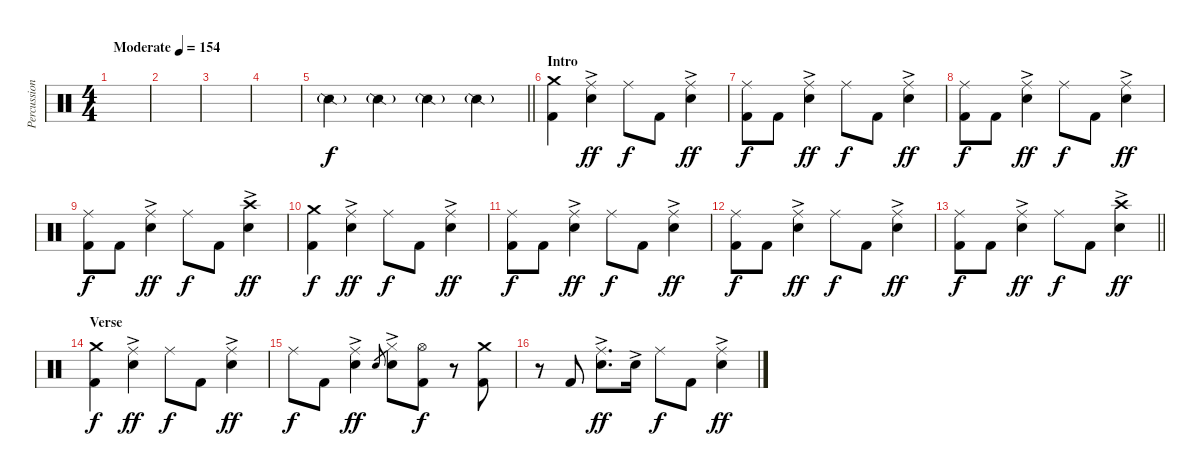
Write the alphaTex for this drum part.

\track ("Percussion" "Percussion") {instrument percussion}
\staff {score}
\articulation defaults
\ts (4 4)
\tempo (154 "Moderate")
\clef neutral
\ks c
|
|
|
|
\barLineRight lightlight "Snare (side stick) 2"{g}.4 "Snare (side stick) 2"{g}.4 "Snare (side stick) 2"{g}.4 "Snare (side stick) 2"{g}.4
|
\section ("" "Intro")
("Crash medium (hit)" "Kick (hit) 2").4{dy f} ("Ride (middle)" "Electric Snare (hit)"{ac}).4{dy ff} "Ride (middle)".8{dy f} "Kick (hit) 2".8 ("Ride (middle)" "Electric Snare (hit)"{ac}).4{dy ff} |
("Ride (middle)" "Kick (hit) 2").8{dy f} "Kick (hit) 2".8 ("Ride (middle)" "Electric Snare (hit)"{ac}).4{dy ff} "Ride (middle)".8{dy f} "Kick (hit) 2".8 ("Ride (middle)" "Electric Snare (hit)"{ac}).4{dy ff} |
("Ride (middle)" "Kick (hit) 2").8{dy f} "Kick (hit) 2".8 ("Ride (middle)" "Electric Snare (hit)"{ac}).4{dy ff} "Ride (middle)".8{dy f} "Kick (hit) 2".8 ("Ride (middle)" "Electric Snare (hit)"{ac}).4{dy ff} |
("Ride (middle)" "Kick (hit) 2").8{dy f} "Kick (hit) 2".8 ("Ride (middle)" "Electric Snare (hit)"{ac}).4{dy ff} "Ride (middle)".8{dy f} "Kick (hit) 2".8 ("Crash high (hit)" "Electric Snare (hit)"{ac}).4{dy ff} |
("Crash medium (hit)" "Kick (hit) 2").4{dy f} ("Ride (middle)" "Electric Snare (hit)"{ac}).4{dy ff} "Ride (middle)".8{dy f} "Kick (hit) 2".8 ("Ride (middle)" "Electric Snare (hit)"{ac}).4{dy ff} |
("Ride (middle)" "Kick (hit) 2").8{dy f} "Kick (hit) 2".8 ("Ride (middle)" "Electric Snare (hit)"{ac}).4{dy ff} "Ride (middle)".8{dy f} "Kick (hit) 2".8 ("Ride (middle)" "Electric Snare (hit)"{ac}).4{dy ff} |
("Ride (middle)" "Kick (hit) 2").8{dy f} "Kick (hit) 2".8 ("Ride (middle)" "Electric Snare (hit)"{ac}).4{dy ff} "Ride (middle)".8{dy f} "Kick (hit) 2".8 ("Ride (middle)" "Electric Snare (hit)"{ac}).4{dy ff} |
\barLineRight lightlight
("Ride (middle)" "Kick (hit) 2").8{dy f} "Kick (hit) 2".8 ("Ride (middle)" "Electric Snare (hit)"{ac}).4{dy ff} "Ride (middle)".8{dy f} "Kick (hit) 2".8 ("Crash high (hit)" "Electric Snare (hit)"{ac}).4{dy ff} |
\section ("" "Verse")
("Crash medium (hit)" "Kick (hit) 2").4{dy f} ("Ride (middle)" "Electric Snare (hit)"{ac}).4{dy ff} "Ride (middle)".8{dy f} "Kick (hit) 2".8 ("Ride (middle)" "Electric Snare (hit)"{ac}).4{dy ff} |
"Ride (middle)".8{dy f} "Kick (hit) 2".8 ("Ride (middle)" "Electric Snare (hit)"{ac}).4{dy ff} "Electric Snare (hit)".8{gr} ("Hi-Hat (closed)" "Electric Snare (hit)"{ac}).8 ("Hi-Hat (open)" "Kick (hit) 2").8{dy f} r.8 ("Crash medium (hit)" "Kick (hit) 2").8 |
r.8 "Kick (hit) 2".8 ("Ride (middle)" "Electric Snare (hit)"{ac}).8{d dy ff} "Electric Snare (hit)"{ac}.16 "Ride (middle)".8{dy f} "Kick (hit) 2".8 ("Ride (middle)" "Electric Snare (hit)"{ac}).4{dy ff}
